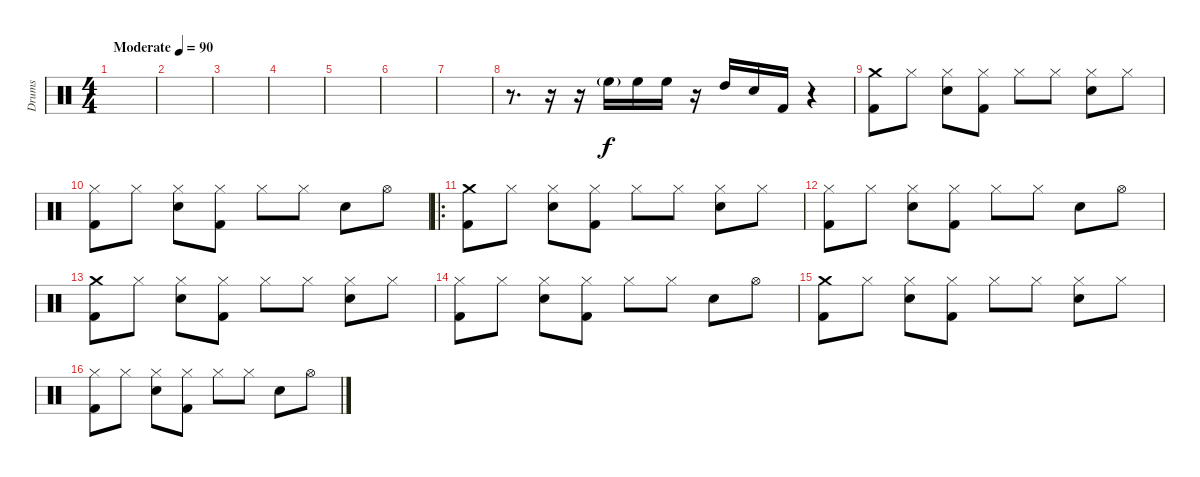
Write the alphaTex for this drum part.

\track ("Drums" "Drums") {instrument percussion}
\staff {score}
\articulation defaults
\ts (4 4)
\tempo (90 "Moderate")
\clef neutral
\ks c
|
|
|
|
|
|
|
r.8{d} r.16 r.16 "High Floor Tom (hit)"{g}.16 "High Floor Tom (hit)".16{dy f} "High Floor Tom (hit)".16 r.16 "High Tom (hit)".16 "Snare (hit) 2".16 "Kick (hit) 2".16 r.4 |
("Crash medium (hit)" "Kick (hit) 2").8 "Hi-Hat (closed)".8 ("Hi-Hat (closed)" "Snare (hit) 2").8 ("Hi-Hat (closed)" "Kick (hit) 2").8 "Hi-Hat (closed)".8 "Hi-Hat (closed)".8 ("Hi-Hat (closed)" "Snare (hit) 2").8 "Hi-Hat (closed)".8 |
("Hi-Hat (closed)" "Kick (hit) 2").8 "Hi-Hat (closed)".8 ("Hi-Hat (closed)" "Snare (hit) 2").8 ("Hi-Hat (closed)" "Kick (hit) 2").8 "Hi-Hat (closed)".8 "Hi-Hat (closed)".8 "Snare (hit) 2".8 "Hi-Hat (open)".8 |
\ro
("Crash medium (hit)" "Kick (hit) 2").8 "Hi-Hat (closed)".8 ("Hi-Hat (closed)" "Snare (hit) 2").8 ("Hi-Hat (closed)" "Kick (hit) 2").8 "Hi-Hat (closed)".8 "Hi-Hat (closed)".8 ("Hi-Hat (closed)" "Snare (hit) 2").8 "Hi-Hat (closed)".8 |
("Hi-Hat (closed)" "Kick (hit) 2").8 "Hi-Hat (closed)".8 ("Hi-Hat (closed)" "Snare (hit) 2").8 ("Hi-Hat (closed)" "Kick (hit) 2").8 "Hi-Hat (closed)".8 "Hi-Hat (closed)".8 "Snare (hit) 2".8 "Hi-Hat (open)".8 |
("Crash medium (hit)" "Kick (hit) 2").8 "Hi-Hat (closed)".8 ("Hi-Hat (closed)" "Snare (hit) 2").8 ("Hi-Hat (closed)" "Kick (hit) 2").8 "Hi-Hat (closed)".8 "Hi-Hat (closed)".8 ("Hi-Hat (closed)" "Snare (hit) 2").8 "Hi-Hat (closed)".8 |
("Hi-Hat (closed)" "Kick (hit) 2").8 "Hi-Hat (closed)".8 ("Hi-Hat (closed)" "Snare (hit) 2").8 ("Hi-Hat (closed)" "Kick (hit) 2").8 "Hi-Hat (closed)".8 "Hi-Hat (closed)".8 "Snare (hit) 2".8 "Hi-Hat (open)".8 |
("Crash medium (hit)" "Kick (hit) 2").8 "Hi-Hat (closed)".8 ("Hi-Hat (closed)" "Snare (hit) 2").8 ("Hi-Hat (closed)" "Kick (hit) 2").8 "Hi-Hat (closed)".8 "Hi-Hat (closed)".8 ("Hi-Hat (closed)" "Snare (hit) 2").8 "Hi-Hat (closed)".8 |
("Hi-Hat (closed)" "Kick (hit) 2").8 "Hi-Hat (closed)".8 ("Hi-Hat (closed)" "Snare (hit) 2").8 ("Hi-Hat (closed)" "Kick (hit) 2").8 "Hi-Hat (closed)".8 "Hi-Hat (closed)".8 "Snare (hit) 2".8 "Hi-Hat (open)".8
